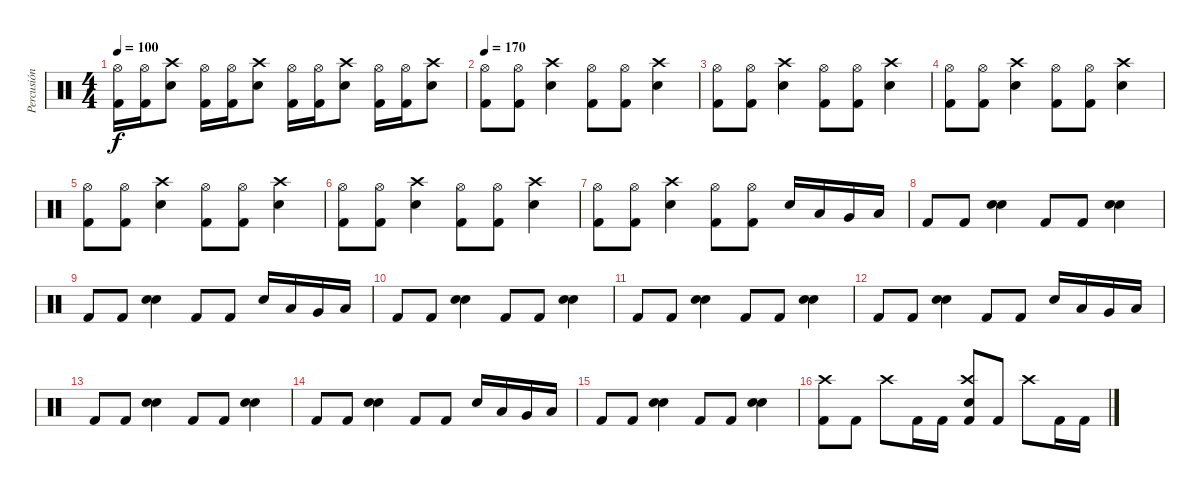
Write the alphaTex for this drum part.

\track ("Percusión" "Percusión") {instrument percussion}
\staff {score}
\articulation defaults
\ts (4 4)
\tempo 100
\clef neutral
\ks c
("Hi-Hat (open)" "Kick (hit) 2").16{dy f} ("Hi-Hat (open)" "Kick (hit) 2").16 ("Crash high (hit)" "Electric Snare (hit)").8 ("Hi-Hat (open)" "Kick (hit) 2").16 ("Hi-Hat (open)" "Kick (hit) 2").16 ("Crash high (hit)" "Electric Snare (hit)").8 ("Hi-Hat (open)" "Kick (hit) 2").16 ("Hi-Hat (open)" "Kick (hit) 2").16 ("Crash high (hit)" "Electric Snare (hit)").8 ("Hi-Hat (open)" "Kick (hit) 2").16 ("Hi-Hat (open)" "Kick (hit) 2").16 ("Crash high (hit)" "Electric Snare (hit)").8 |
\tempo 170
("Hi-Hat (open)" "Kick (hit) 2").8 ("Hi-Hat (open)" "Kick (hit) 2").8 ("Crash high (hit)" "Electric Snare (hit)").4 ("Hi-Hat (open)" "Kick (hit) 2").8 ("Hi-Hat (open)" "Kick (hit) 2").8 ("Crash high (hit)" "Electric Snare (hit)").4 |
("Hi-Hat (open)" "Kick (hit) 2").8 ("Hi-Hat (open)" "Kick (hit) 2").8 ("Crash high (hit)" "Electric Snare (hit)").4 ("Hi-Hat (open)" "Kick (hit) 2").8 ("Hi-Hat (open)" "Kick (hit) 2").8 ("Crash high (hit)" "Electric Snare (hit)").4 |
("Hi-Hat (open)" "Kick (hit) 2").8 ("Hi-Hat (open)" "Kick (hit) 2").8 ("Crash high (hit)" "Electric Snare (hit)").4 ("Hi-Hat (open)" "Kick (hit) 2").8 ("Hi-Hat (open)" "Kick (hit) 2").8 ("Crash high (hit)" "Electric Snare (hit)").4 |
("Hi-Hat (open)" "Kick (hit) 2").8 ("Hi-Hat (open)" "Kick (hit) 2").8 ("Crash high (hit)" "Electric Snare (hit)").4 ("Hi-Hat (open)" "Kick (hit) 2").8 ("Hi-Hat (open)" "Kick (hit) 2").8 ("Crash high (hit)" "Electric Snare (hit)").4 |
("Hi-Hat (open)" "Kick (hit) 2").8 ("Hi-Hat (open)" "Kick (hit) 2").8 ("Crash high (hit)" "Electric Snare (hit)").4 ("Hi-Hat (open)" "Kick (hit) 2").8 ("Hi-Hat (open)" "Kick (hit) 2").8 ("Crash high (hit)" "Electric Snare (hit)").4 |
("Hi-Hat (open)" "Kick (hit) 2").8 ("Hi-Hat (open)" "Kick (hit) 2").8 ("Crash high (hit)" "Electric Snare (hit)").4 ("Hi-Hat (open)" "Kick (hit) 2").8 ("Hi-Hat (open)" "Kick (hit) 2").8 "Electric Snare (hit)".16 "Low Tom (hit)".16 "Very Low Tom (hit)".16 "Low Floor Tom (hit)".16 |
"Kick (hit) 2".8 "Kick (hit) 2".8 ("Electric Snare (hit)" "Electric Snare (hit)").4{bd 120} "Kick (hit) 2".8 "Kick (hit) 2".8 ("Electric Snare (hit)" "Electric Snare (hit)").4{bd 120} |
"Kick (hit) 2".8 "Kick (hit) 2".8 ("Electric Snare (hit)" "Electric Snare (hit)").4{bd 120} "Kick (hit) 2".8 "Kick (hit) 2".8 "Electric Snare (hit)".16 "Low Tom (hit)".16 "Very Low Tom (hit)".16 "Low Floor Tom (hit)".16 |
"Kick (hit) 2".8 "Kick (hit) 2".8 ("Electric Snare (hit)" "Electric Snare (hit)").4{bd 120} "Kick (hit) 2".8 "Kick (hit) 2".8 ("Electric Snare (hit)" "Electric Snare (hit)").4{bd 120} |
"Kick (hit) 2".8 "Kick (hit) 2".8 ("Electric Snare (hit)" "Electric Snare (hit)").4{bd 120} "Kick (hit) 2".8 "Kick (hit) 2".8 ("Electric Snare (hit)" "Electric Snare (hit)").4{bd 120} |
"Kick (hit) 2".8 "Kick (hit) 2".8 ("Electric Snare (hit)" "Electric Snare (hit)").4{bd 120} "Kick (hit) 2".8 "Kick (hit) 2".8 "Electric Snare (hit)".16 "Low Tom (hit)".16 "Very Low Tom (hit)".16 "Low Floor Tom (hit)".16 |
"Kick (hit) 2".8 "Kick (hit) 2".8 ("Electric Snare (hit)" "Electric Snare (hit)").4{bd 120} "Kick (hit) 2".8 "Kick (hit) 2".8 ("Electric Snare (hit)" "Electric Snare (hit)").4{bd 120} |
"Kick (hit) 2".8 "Kick (hit) 2".8 ("Electric Snare (hit)" "Electric Snare (hit)").4{bd 120} "Kick (hit) 2".8 "Kick (hit) 2".8 "Electric Snare (hit)".16 "Low Tom (hit)".16 "Very Low Tom (hit)".16 "Low Floor Tom (hit)".16 |
"Kick (hit) 2".8 "Kick (hit) 2".8 ("Electric Snare (hit)" "Electric Snare (hit)").4{bd 120} "Kick (hit) 2".8 "Kick (hit) 2".8 ("Electric Snare (hit)" "Electric Snare (hit)").4{bd 120} |
("Crash high (hit)" "Kick (hit) 2").8 "Kick (hit) 2".8 "Crash high (hit)".8 "Kick (hit) 2".16 "Kick (hit) 2".16 ("Crash high (hit)" "Electric Snare (hit)" "Kick (hit) 2").8 "Kick (hit) 2".8 "Crash high (hit)".8 "Kick (hit) 2".16 "Kick (hit) 2".16
